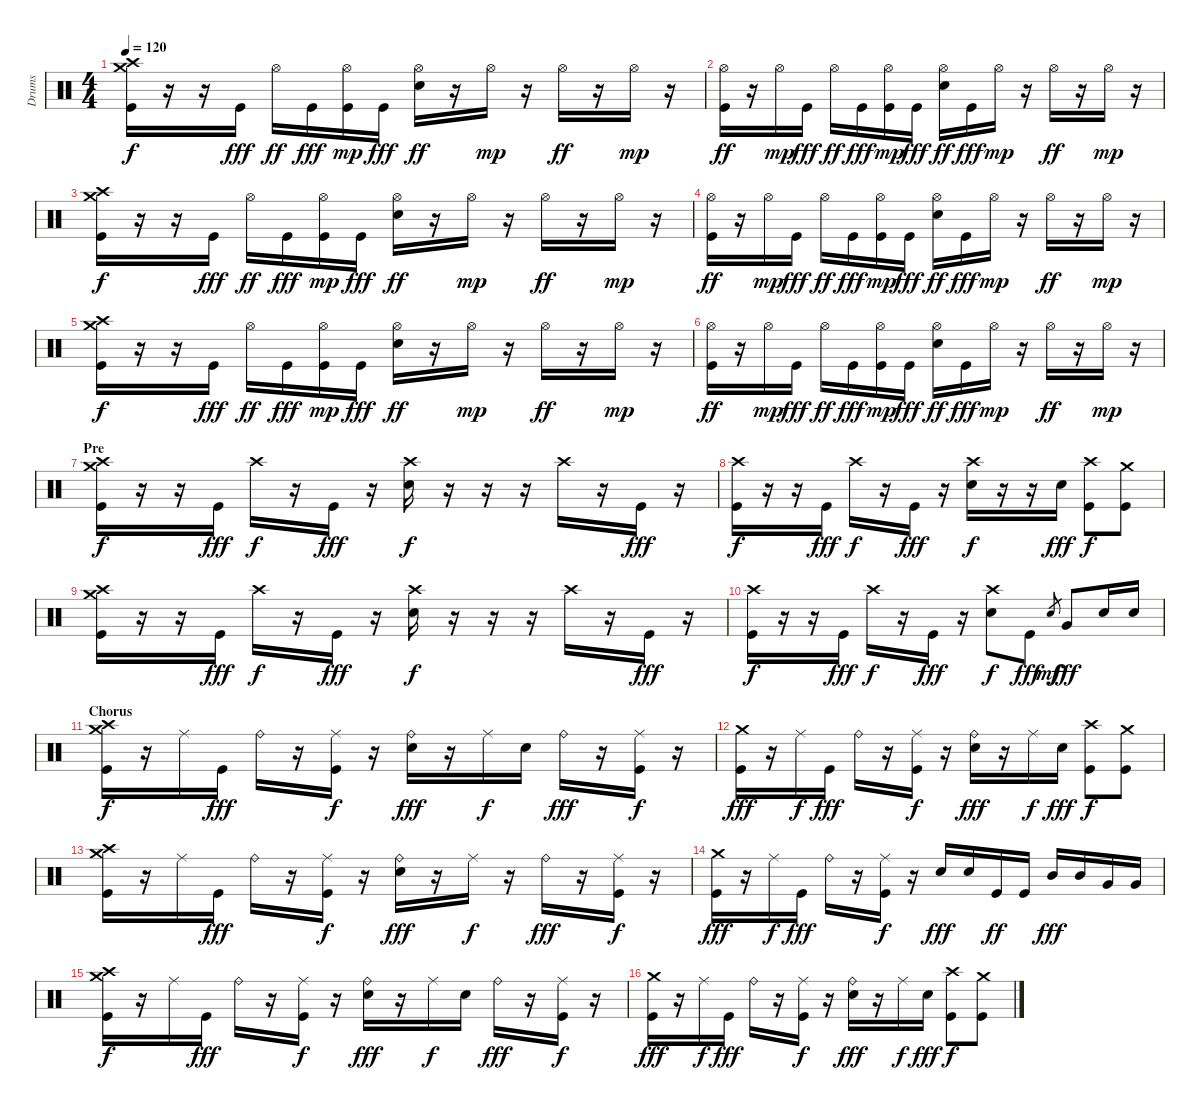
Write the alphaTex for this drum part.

\track ("Drums" "Drums") {instrument percussion}
\staff {score}
\articulation defaults
\ts (4 4)
\tempo 120
\clef neutral
\ks c
("Crash high (hit)" "Crash medium (hit)" "Kick (hit)").16{dy f} r.16 r.16 "Kick (hit)".16{dy fff} "Hi-Hat (open)".16{dy ff} "Kick (hit)".16{dy fff} ("Hi-Hat (open)" "Kick (hit)").16{dy mp} "Kick (hit)".16{dy fff} ("Hi-Hat (open)" "Snare (hit) 2").16{dy ff} r.16 "Hi-Hat (open)".16{dy mp} r.16 "Hi-Hat (open)".16{dy ff} r.16 "Hi-Hat (open)".16{dy mp} r.16 |
("Hi-Hat (open)" "Kick (hit)").16{dy ff} r.16 "Hi-Hat (open)".16{dy mp} "Kick (hit)".16{dy fff} "Hi-Hat (open)".16{dy ff} "Kick (hit)".16{dy fff} ("Hi-Hat (open)" "Kick (hit)").16{dy mp} "Kick (hit)".16{dy fff} ("Hi-Hat (open)" "Snare (hit) 2").16{dy ff} "Kick (hit)".16{dy fff} "Hi-Hat (open)".16{dy mp} r.16 "Hi-Hat (open)".16{dy ff} r.16 "Hi-Hat (open)".16{dy mp} r.16 |
("Crash high (hit)" "Crash medium (hit)" "Kick (hit)").16{dy f} r.16 r.16 "Kick (hit)".16{dy fff} "Hi-Hat (open)".16{dy ff} "Kick (hit)".16{dy fff} ("Hi-Hat (open)" "Kick (hit)").16{dy mp} "Kick (hit)".16{dy fff} ("Hi-Hat (open)" "Snare (hit) 2").16{dy ff} r.16 "Hi-Hat (open)".16{dy mp} r.16 "Hi-Hat (open)".16{dy ff} r.16 "Hi-Hat (open)".16{dy mp} r.16 |
("Hi-Hat (open)" "Kick (hit)").16{dy ff} r.16 "Hi-Hat (open)".16{dy mp} "Kick (hit)".16{dy fff} "Hi-Hat (open)".16{dy ff} "Kick (hit)".16{dy fff} ("Hi-Hat (open)" "Kick (hit)").16{dy mp} "Kick (hit)".16{dy fff} ("Hi-Hat (open)" "Snare (hit) 2").16{dy ff} "Kick (hit)".16{dy fff} "Hi-Hat (open)".16{dy mp} r.16 "Hi-Hat (open)".16{dy ff} r.16 "Hi-Hat (open)".16{dy mp} r.16 |
("Crash high (hit)" "Crash medium (hit)" "Kick (hit)").16{dy f} r.16 r.16 "Kick (hit)".16{dy fff} "Hi-Hat (open)".16{dy ff} "Kick (hit)".16{dy fff} ("Hi-Hat (open)" "Kick (hit)").16{dy mp} "Kick (hit)".16{dy fff} ("Hi-Hat (open)" "Snare (hit) 2").16{dy ff} r.16 "Hi-Hat (open)".16{dy mp} r.16 "Hi-Hat (open)".16{dy ff} r.16 "Hi-Hat (open)".16{dy mp} r.16 |
("Hi-Hat (open)" "Kick (hit)").16{dy ff} r.16 "Hi-Hat (open)".16{dy mp} "Kick (hit)".16{dy fff} "Hi-Hat (open)".16{dy ff} "Kick (hit)".16{dy fff} ("Hi-Hat (open)" "Kick (hit)").16{dy mp} "Kick (hit)".16{dy fff} ("Hi-Hat (open)" "Snare (hit) 2").16{dy ff} "Kick (hit)".16{dy fff} "Hi-Hat (open)".16{dy mp} r.16 "Hi-Hat (open)".16{dy ff} r.16 "Hi-Hat (open)".16{dy mp} r.16 |
\section ("" "Pre")
("Crash high (hit)" "Crash medium (hit)" "Kick (hit)").16{dy f} r.16 r.16 "Kick (hit)".16{dy fff} "Crash high (hit)".16{dy f} r.16 "Kick (hit)".16{dy fff} r.16 ("Crash high (hit)" "Snare (hit) 2").16{dy f} r.16 r.16 r.16 "Crash high (hit)".16 r.16 "Kick (hit)".16{dy fff} r.16 |
("Crash high (hit)" "Kick (hit)").16{dy f} r.16 r.16 "Kick (hit)".16{dy fff} "Crash high (hit)".16{dy f} r.16 "Kick (hit)".16{dy fff} r.16 ("Crash high (hit)" "Snare (hit) 2").16{dy f} r.16 r.16 "Snare (hit) 2".16{dy fff} ("Crash high (hit)" "Kick (hit)").8{dy f} ("Crash medium (hit)" "Kick (hit)").8 |
("Crash high (hit)" "Crash medium (hit)" "Kick (hit)").16 r.16 r.16 "Kick (hit)".16{dy fff} "Crash high (hit)".16{dy f} r.16 "Kick (hit)".16{dy fff} r.16 ("Crash high (hit)" "Snare (hit) 2").16{dy f} r.16 r.16 r.16 "Crash high (hit)".16 r.16 "Kick (hit)".16{dy fff} r.16 |
("Crash high (hit)" "Kick (hit)").16{dy f} r.16 r.16 "Kick (hit)".16{dy fff} "Crash high (hit)".16{dy f} r.16 "Kick (hit)".16{dy fff} r.16 ("Crash high (hit)" "Snare (hit) 2").8{dy f} "Kick (hit)".8{dy fff} "Snare (hit)".8{gr dy mf} "Very Low Tom (hit)".8{dy fff} "Snare (hit) 2".16 "Snare (hit) 2".16 |
\section ("" "Chorus")
("Crash high (hit)" "Crash medium (hit)" "Kick (hit)").16{dy f} r.16 "Ride (middle)".16 "Kick (hit)".16{dy fff} "Ride (bell)".16 r.16 ("Ride (middle)" "Kick (hit)").16{dy f} r.16 ("Ride (bell)" "Snare (hit) 2").16{dy fff} r.16 "Ride (middle)".16{dy f} "Snare (hit) 2".16 "Ride (bell)".16{dy fff} r.16 ("Ride (middle)" "Kick (hit)").16{dy f} r.16 |
("Crash medium (hit)" "Kick (hit)").16{dy fff} r.16 "Ride (middle)".16{dy f} "Kick (hit)".16{dy fff} "Ride (bell)".16 r.16 ("Ride (middle)" "Kick (hit)").16{dy f} r.16 ("Ride (bell)" "Snare (hit) 2").16{dy fff} r.16 "Ride (middle)".16{dy f} "Snare (hit) 2".16{dy fff} ("Crash high (hit)" "Kick (hit)").8{dy f} ("Crash medium (hit)" "Kick (hit)").8 |
("Crash high (hit)" "Crash medium (hit)" "Kick (hit)").16 r.16 "Ride (middle)".16 "Kick (hit)".16{dy fff} "Ride (bell)".16 r.16 ("Ride (middle)" "Kick (hit)").16{dy f} r.16 ("Ride (bell)" "Snare (hit) 2").16{dy fff} r.16 "Ride (middle)".16{dy f} r.16 "Ride (bell)".16{dy fff} r.16 ("Ride (middle)" "Kick (hit)").16{dy f} r.16 |
("Crash medium (hit)" "Kick (hit)").16{dy fff} r.16 "Ride (middle)".16{dy f} "Kick (hit)".16{dy fff} "Ride (bell)".16 r.16 ("Ride (middle)" "Kick (hit)").16{dy f} r.16 "Snare (hit) 2".16{dy fff} "Snare (hit) 2".16 "Kick (hit)".16{dy ff} "Kick (hit)".16 "Mid Tom (hit)".16{dy fff} "Mid Tom (hit)".16 "Very Low Tom (hit)".16 "Very Low Tom (hit)".16 |
("Crash high (hit)" "Crash medium (hit)" "Kick (hit)").16{dy f} r.16 "Ride (middle)".16 "Kick (hit)".16{dy fff} "Ride (bell)".16 r.16 ("Ride (middle)" "Kick (hit)").16{dy f} r.16 ("Ride (bell)" "Snare (hit) 2").16{dy fff} r.16 "Ride (middle)".16{dy f} "Snare (hit) 2".16 "Ride (bell)".16{dy fff} r.16 ("Ride (middle)" "Kick (hit)").16{dy f} r.16 |
("Crash medium (hit)" "Kick (hit)").16{dy fff} r.16 "Ride (middle)".16{dy f} "Kick (hit)".16{dy fff} "Ride (bell)".16 r.16 ("Ride (middle)" "Kick (hit)").16{dy f} r.16 ("Ride (bell)" "Snare (hit) 2").16{dy fff} r.16 "Ride (middle)".16{dy f} "Snare (hit) 2".16{dy fff} ("Crash high (hit)" "Kick (hit)").8{dy f} ("Crash medium (hit)" "Kick (hit)").8
